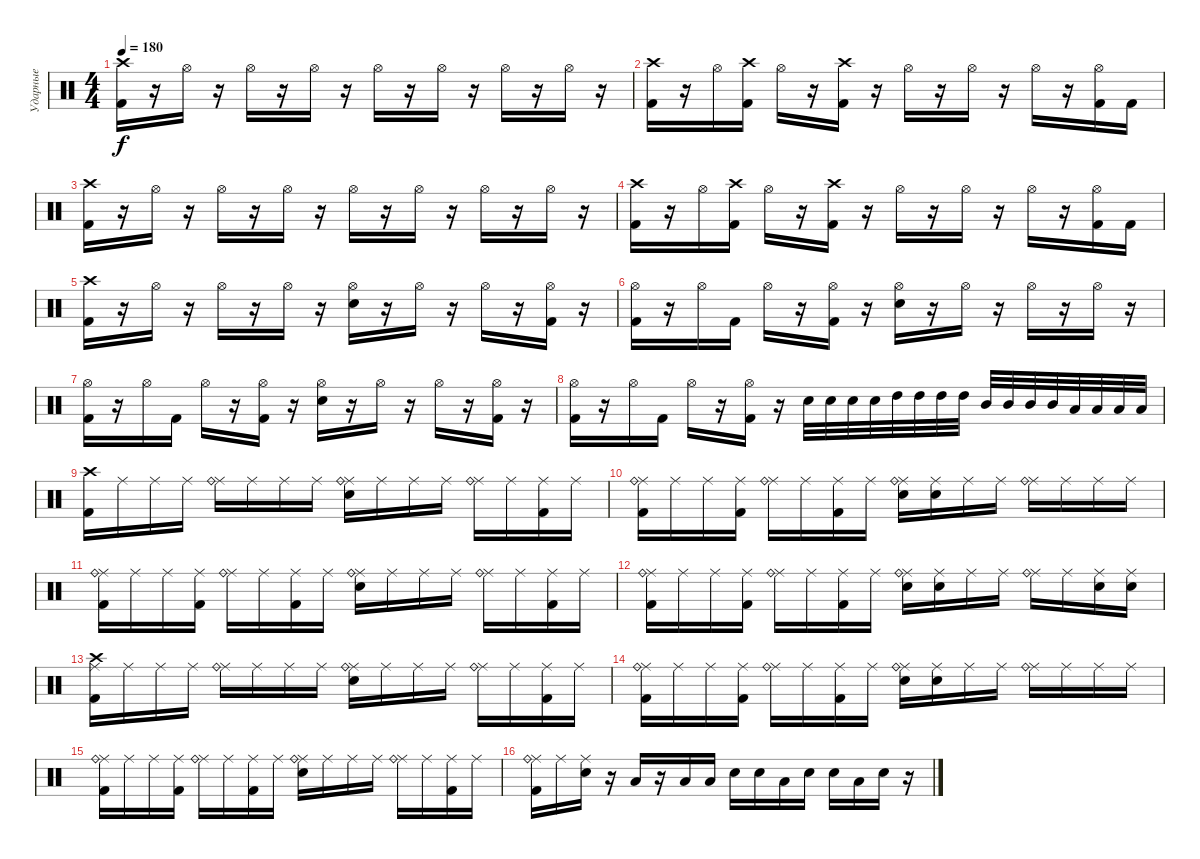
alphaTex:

\track ("Ударные" "Ударные") {instrument percussion}
\staff {score}
\articulation defaults
\ts (4 4)
\tempo 180
\clef neutral
\ks c
("Crash high (hit)" "Kick (hit) 2").16{dy f} r.16 "Hi-Hat (open)".16 r.16 "Hi-Hat (open)".16 r.16 "Hi-Hat (open)".16 r.16 "Hi-Hat (open)".16 r.16 "Hi-Hat (open)".16 r.16 "Hi-Hat (open)".16 r.16 "Hi-Hat (open)".16 r.16 |
("Crash high (hit)" "Kick (hit) 2").16 r.16 "Hi-Hat (open)".16 ("Crash high (hit)" "Kick (hit) 2").16 "Hi-Hat (open)".16 r.16 ("Crash high (hit)" "Kick (hit) 2").16 r.16 "Hi-Hat (open)".16 r.16 "Hi-Hat (open)".16 r.16 "Hi-Hat (open)".16 r.16 ("Hi-Hat (open)" "Kick (hit) 2").16 "Kick (hit) 2".16 |
("Crash high (hit)" "Kick (hit) 2").16 r.16 "Hi-Hat (open)".16 r.16 "Hi-Hat (open)".16 r.16 "Hi-Hat (open)".16 r.16 "Hi-Hat (open)".16 r.16 "Hi-Hat (open)".16 r.16 "Hi-Hat (open)".16 r.16 "Hi-Hat (open)".16 r.16 |
("Crash high (hit)" "Kick (hit) 2").16 r.16 "Hi-Hat (open)".16 ("Crash high (hit)" "Kick (hit) 2").16 "Hi-Hat (open)".16 r.16 ("Crash high (hit)" "Kick (hit) 2").16 r.16 "Hi-Hat (open)".16 r.16 "Hi-Hat (open)".16 r.16 "Hi-Hat (open)".16 r.16 ("Hi-Hat (open)" "Kick (hit) 2").16 "Kick (hit) 2".16 |
("Crash high (hit)" "Kick (hit) 2").16 r.16 "Hi-Hat (open)".16 r.16 "Hi-Hat (open)".16 r.16 "Hi-Hat (open)".16 r.16 ("Hi-Hat (open)" "Electric Snare (hit)").16 r.16 "Hi-Hat (open)".16 r.16 "Hi-Hat (open)".16 r.16 ("Hi-Hat (open)" "Kick (hit) 2").16 r.16 |
("Hi-Hat (open)" "Kick (hit) 2").16 r.16 "Hi-Hat (open)".16 "Kick (hit) 2".16 "Hi-Hat (open)".16 r.16 ("Hi-Hat (open)" "Kick (hit) 2").16 r.16 ("Hi-Hat (open)" "Electric Snare (hit)").16 r.16 "Hi-Hat (open)".16 r.16 "Hi-Hat (open)".16 r.16 "Hi-Hat (open)".16 r.16 |
("Hi-Hat (open)" "Kick (hit) 2").16 r.16 "Hi-Hat (open)".16 "Kick (hit) 2".16 "Hi-Hat (open)".16 r.16 ("Hi-Hat (open)" "Kick (hit) 2").16 r.16 ("Hi-Hat (open)" "Electric Snare (hit)").16 r.16 "Hi-Hat (open)".16 r.16 "Hi-Hat (open)".16 r.16 ("Hi-Hat (open)" "Kick (hit) 2").16 r.16 |
("Hi-Hat (open)" "Kick (hit) 2").16 r.16 "Hi-Hat (open)".16 "Kick (hit) 2".16 "Hi-Hat (open)".16 r.16 ("Hi-Hat (open)" "Kick (hit) 2").16 r.16 "Electric Snare (hit)".32 "Electric Snare (hit)".32 "Electric Snare (hit)".32 "Electric Snare (hit)".32 "High Tom (hit)".32 "High Tom (hit)".32 "High Tom (hit)".32 "High Tom (hit)".32 "Mid Tom (hit)".32 "Mid Tom (hit)".32 "Mid Tom (hit)".32 "Mid Tom (hit)".32 "Low Tom (hit)".32 "Low Tom (hit)".32 "Low Tom (hit)".32 "Low Tom (hit)".32 |
("Crash high (hit)" "Kick (hit) 2").16 "Ride (middle)".16 "Ride (middle)".16 "Ride (middle)".16 ("Ride (middle)" "Ride (bell)").16 "Ride (middle)".16 "Ride (middle)".16 "Ride (middle)".16 ("Ride (middle)" "Ride (bell)" "Electric Snare (hit)").16 "Ride (middle)".16 "Ride (middle)".16 "Ride (middle)".16 ("Ride (middle)" "Ride (bell)").16 "Ride (middle)".16 ("Ride (middle)" "Kick (hit) 2").16 "Ride (middle)".16 |
("Ride (middle)" "Ride (bell)" "Kick (hit) 2").16 "Ride (middle)".16 "Ride (middle)".16 ("Ride (middle)" "Kick (hit) 2").16 ("Ride (middle)" "Ride (bell)").16 "Ride (middle)".16 ("Ride (middle)" "Kick (hit) 2").16 "Ride (middle)".16 ("Ride (middle)" "Ride (bell)" "Electric Snare (hit)").16 ("Ride (middle)" "Electric Snare (hit)").16 "Ride (middle)".16 "Ride (middle)".16 ("Ride (middle)" "Ride (bell)").16 "Ride (middle)".16 "Ride (middle)".16 "Ride (middle)".16 |
("Ride (middle)" "Ride (bell)" "Kick (hit) 2").16 "Ride (middle)".16 "Ride (middle)".16 ("Ride (middle)" "Kick (hit) 2").16 ("Ride (middle)" "Ride (bell)").16 "Ride (middle)".16 ("Ride (middle)" "Kick (hit) 2").16 "Ride (middle)".16 ("Ride (middle)" "Ride (bell)" "Electric Snare (hit)").16 "Ride (middle)".16 "Ride (middle)".16 "Ride (middle)".16 ("Ride (middle)" "Ride (bell)").16 "Ride (middle)".16 ("Ride (middle)" "Kick (hit) 2").16 "Ride (middle)".16 |
("Ride (middle)" "Ride (bell)" "Kick (hit) 2").16 "Ride (middle)".16 "Ride (middle)".16 ("Ride (middle)" "Kick (hit) 2").16 ("Ride (middle)" "Ride (bell)").16 "Ride (middle)".16 ("Ride (middle)" "Kick (hit) 2").16 "Ride (middle)".16 ("Ride (middle)" "Ride (bell)" "Electric Snare (hit)").16 ("Ride (middle)" "Electric Snare (hit)").16 "Ride (middle)".16 "Ride (middle)".16 ("Ride (middle)" "Ride (bell)").16 "Ride (middle)".16 ("Ride (middle)" "Electric Snare (hit)").16 ("Ride (middle)" "Electric Snare (hit)").16 |
("Ride (middle)" "Crash high (hit)" "Kick (hit) 2").16 "Ride (middle)".16 "Ride (middle)".16 "Ride (middle)".16 ("Ride (middle)" "Ride (bell)").16 "Ride (middle)".16 "Ride (middle)".16 "Ride (middle)".16 ("Ride (middle)" "Ride (bell)" "Electric Snare (hit)").16 "Ride (middle)".16 "Ride (middle)".16 "Ride (middle)".16 ("Ride (middle)" "Ride (bell)").16 "Ride (middle)".16 ("Ride (middle)" "Kick (hit) 2").16 "Ride (middle)".16 |
("Ride (middle)" "Ride (bell)" "Kick (hit) 2").16 "Ride (middle)".16 "Ride (middle)".16 ("Ride (middle)" "Kick (hit) 2").16 ("Ride (middle)" "Ride (bell)").16 "Ride (middle)".16 ("Ride (middle)" "Kick (hit) 2").16 "Ride (middle)".16 ("Ride (middle)" "Ride (bell)" "Electric Snare (hit)").16 ("Ride (middle)" "Electric Snare (hit)").16 "Ride (middle)".16 "Ride (middle)".16 ("Ride (middle)" "Ride (bell)").16 "Ride (middle)".16 "Ride (middle)".16 "Ride (middle)".16 |
("Ride (middle)" "Ride (bell)" "Kick (hit) 2").16 "Ride (middle)".16 "Ride (middle)".16 ("Ride (middle)" "Kick (hit) 2").16 ("Ride (middle)" "Ride (bell)").16 "Ride (middle)".16 ("Ride (middle)" "Kick (hit) 2").16 "Ride (middle)".16 ("Ride (middle)" "Ride (bell)" "Electric Snare (hit)").16 "Ride (middle)".16 "Ride (middle)".16 "Ride (middle)".16 ("Ride (middle)" "Ride (bell)").16 "Ride (middle)".16 ("Ride (middle)" "Kick (hit) 2").16 "Ride (middle)".16 |
("Ride (middle)" "Ride (bell)" "Kick (hit) 2").16 "Ride (middle)".16 ("Ride (middle)" "Electric Snare (hit)").16 r.16 "Low Tom (hit)".16 r.16 "Low Tom (hit)".16 "Low Tom (hit)".16 "Electric Snare (hit)".16 "Electric Snare (hit)".16 "Low Tom (hit)".16 "Electric Snare (hit)".16 "Electric Snare (hit)".16 "Low Tom (hit)".16 "Electric Snare (hit)".16 r.16
